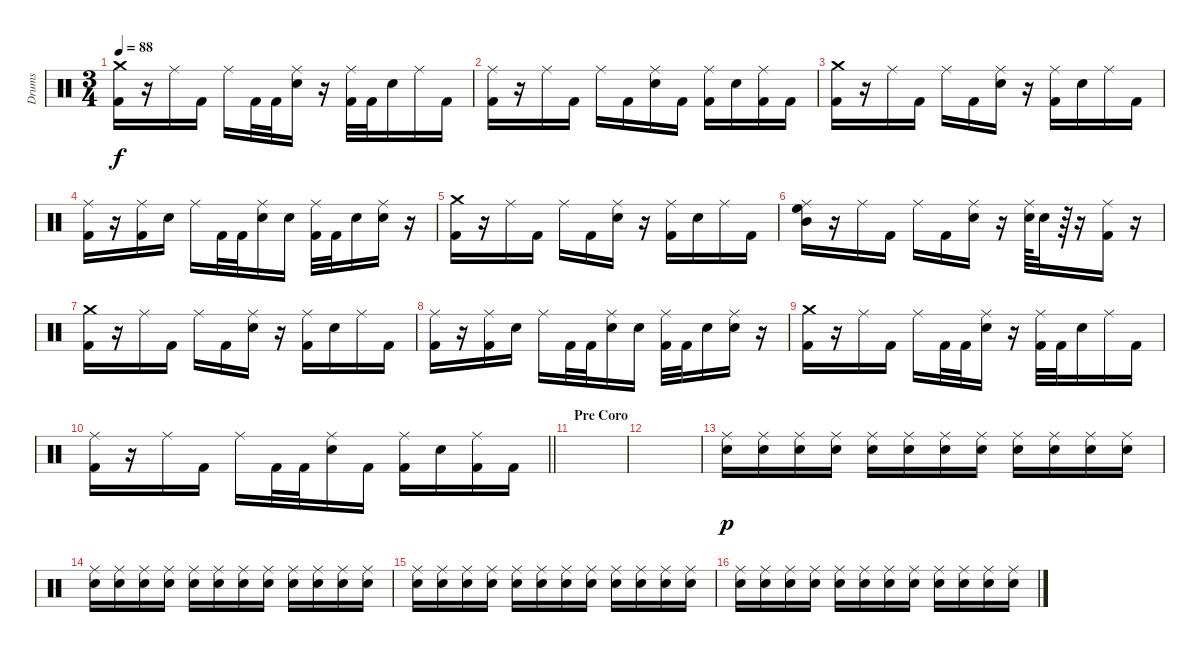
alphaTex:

\track ("Drums" "Drums") {instrument percussion}
\staff {score}
\articulation defaults
\ts (3 4)
\tempo 88
\clef neutral
\ks c
("Crash medium (hit)" "Kick (hit) 2").16{dy f} r.16 "Ride (middle)".16 "Kick (hit) 2".16 "Ride (middle)".16 "Kick (hit) 2".32 "Kick (hit) 2".32 ("Ride (middle)" "Snare (hit) 2").16 r.16 ("Ride (middle)" "Kick (hit) 2").32 "Kick (hit) 2".32 "Snare (hit) 2".16 "Ride (middle)".16 "Kick (hit) 2".16 |
("Ride (middle)" "Kick (hit) 2").16 r.16 "Ride (middle)".16 "Kick (hit) 2".16 "Ride (middle)".16 "Kick (hit) 2".16 ("Ride (middle)" "Snare (hit) 2").16 "Kick (hit) 2".16 ("Ride (middle)" "Kick (hit) 2").16 "Snare (hit) 2".16 ("Ride (middle)" "Kick (hit) 2").16 "Kick (hit) 2".16 |
("Crash medium (hit)" "Kick (hit) 2").16 r.16 "Ride (middle)".16 "Kick (hit) 2".16 "Ride (middle)".16 "Kick (hit) 2".16 ("Ride (middle)" "Snare (hit) 2").16 r.16 ("Ride (middle)" "Kick (hit) 2").16 "Snare (hit) 2".16 "Ride (middle)".16 "Kick (hit) 2".16 |
("Ride (middle)" "Kick (hit) 2").16 r.16 ("Ride (middle)" "Kick (hit) 2").16 "Snare (hit) 2".16 "Ride (middle)".16 "Kick (hit) 2".32 "Kick (hit) 2".32 ("Ride (middle)" "Snare (hit) 2").16 "Snare (hit) 2".16 ("Ride (middle)" "Kick (hit) 2").32 "Kick (hit) 2".32 "Snare (hit) 2".16 ("Ride (middle)" "Snare (hit) 2").16 r.16 |
("Crash medium (hit)" "Kick (hit) 2").16 r.16 "Ride (middle)".16 "Kick (hit) 2".16 "Ride (middle)".16 "Kick (hit) 2".16 ("Ride (middle)" "Snare (hit) 2").16 r.16 ("Ride (middle)" "Kick (hit) 2").16 "Snare (hit) 2".16 "Ride (middle)".16 "Kick (hit) 2".16 |
("Ride (middle)" "High Floor Tom (hit)" "Mid Tom (hit)").16 r.16 "Ride (middle)".16 "Kick (hit) 2".16 "Ride (middle)".16 "Kick (hit) 2".16 ("Ride (middle)" "Snare (hit) 2").16 r.16 ("Ride (middle)" "Snare (hit) 2").64 "Snare (hit) 2".32 r.64 r.16 ("Ride (middle)" "Kick (hit) 2").16 r.16 |
("Crash medium (hit)" "Kick (hit) 2").16 r.16 "Ride (middle)".16 "Kick (hit) 2".16 "Ride (middle)".16 "Kick (hit) 2".16 ("Ride (middle)" "Snare (hit) 2").16 r.16 ("Ride (middle)" "Kick (hit) 2").16 "Snare (hit) 2".16 "Ride (middle)".16 "Kick (hit) 2".16 |
("Ride (middle)" "Kick (hit) 2").16 r.16 ("Ride (middle)" "Kick (hit) 2").16 "Snare (hit) 2".16 "Ride (middle)".16 "Kick (hit) 2".32 "Kick (hit) 2".32 ("Ride (middle)" "Snare (hit) 2").16 "Snare (hit) 2".16 ("Ride (middle)" "Kick (hit) 2").32 "Kick (hit) 2".32 "Snare (hit) 2".16 ("Ride (middle)" "Snare (hit) 2").16 r.16 |
("Crash medium (hit)" "Kick (hit) 2").16 r.16 "Ride (middle)".16 "Kick (hit) 2".16 "Ride (middle)".16 "Kick (hit) 2".32 "Kick (hit) 2".32 ("Ride (middle)" "Snare (hit) 2").16 r.16 ("Ride (middle)" "Kick (hit) 2").32 "Kick (hit) 2".32 "Snare (hit) 2".16 "Ride (middle)".16 "Kick (hit) 2".16 |
\barLineRight lightlight
("Ride (middle)" "Kick (hit) 2").16 r.16 "Ride (middle)".16 "Kick (hit) 2".16 "Ride (middle)".16 "Kick (hit) 2".32 "Kick (hit) 2".32 ("Ride (middle)" "Snare (hit) 2").16 "Kick (hit) 2".16 ("Ride (middle)" "Kick (hit) 2").16 "Snare (hit) 2".16 ("Ride (middle)" "Kick (hit) 2").16 "Kick (hit) 2".16 |
\section ("" "Pre Coro")
|
|
("Ride (middle)" "Snare (hit) 2").16{dy p} ("Ride (middle)" "Snare (hit) 2").16 ("Ride (middle)" "Snare (hit) 2").16 ("Ride (middle)" "Snare (hit) 2").16 ("Ride (middle)" "Snare (hit) 2").16 ("Ride (middle)" "Snare (hit) 2").16 ("Ride (middle)" "Snare (hit) 2").16 ("Ride (middle)" "Snare (hit) 2").16 ("Ride (middle)" "Snare (hit) 2").16 ("Ride (middle)" "Snare (hit) 2").16 ("Ride (middle)" "Snare (hit) 2").16 ("Ride (middle)" "Snare (hit) 2").16 |
("Ride (middle)" "Snare (hit) 2").16 ("Ride (middle)" "Snare (hit) 2").16 ("Ride (middle)" "Snare (hit) 2").16 ("Ride (middle)" "Snare (hit) 2").16 ("Ride (middle)" "Snare (hit) 2").16 ("Ride (middle)" "Snare (hit) 2").16 ("Ride (middle)" "Snare (hit) 2").16 ("Ride (middle)" "Snare (hit) 2").16 ("Ride (middle)" "Snare (hit) 2").16 ("Ride (middle)" "Snare (hit) 2").16 ("Ride (middle)" "Snare (hit) 2").16 ("Ride (middle)" "Snare (hit) 2").16 |
("Ride (middle)" "Snare (hit) 2").16 ("Ride (middle)" "Snare (hit) 2").16 ("Ride (middle)" "Snare (hit) 2").16 ("Ride (middle)" "Snare (hit) 2").16 ("Ride (middle)" "Snare (hit) 2").16 ("Ride (middle)" "Snare (hit) 2").16 ("Ride (middle)" "Snare (hit) 2").16 ("Ride (middle)" "Snare (hit) 2").16 ("Ride (middle)" "Snare (hit) 2").16 ("Ride (middle)" "Snare (hit) 2").16 ("Ride (middle)" "Snare (hit) 2").16 ("Ride (middle)" "Snare (hit) 2").16 |
("Ride (middle)" "Snare (hit) 2").16 ("Ride (middle)" "Snare (hit) 2").16 ("Ride (middle)" "Snare (hit) 2").16 ("Ride (middle)" "Snare (hit) 2").16 ("Ride (middle)" "Snare (hit) 2").16 ("Ride (middle)" "Snare (hit) 2").16 ("Ride (middle)" "Snare (hit) 2").16 ("Ride (middle)" "Snare (hit) 2").16 ("Ride (middle)" "Snare (hit) 2").16 ("Ride (middle)" "Snare (hit) 2").16 ("Ride (middle)" "Snare (hit) 2").16 ("Ride (middle)" "Snare (hit) 2").16
